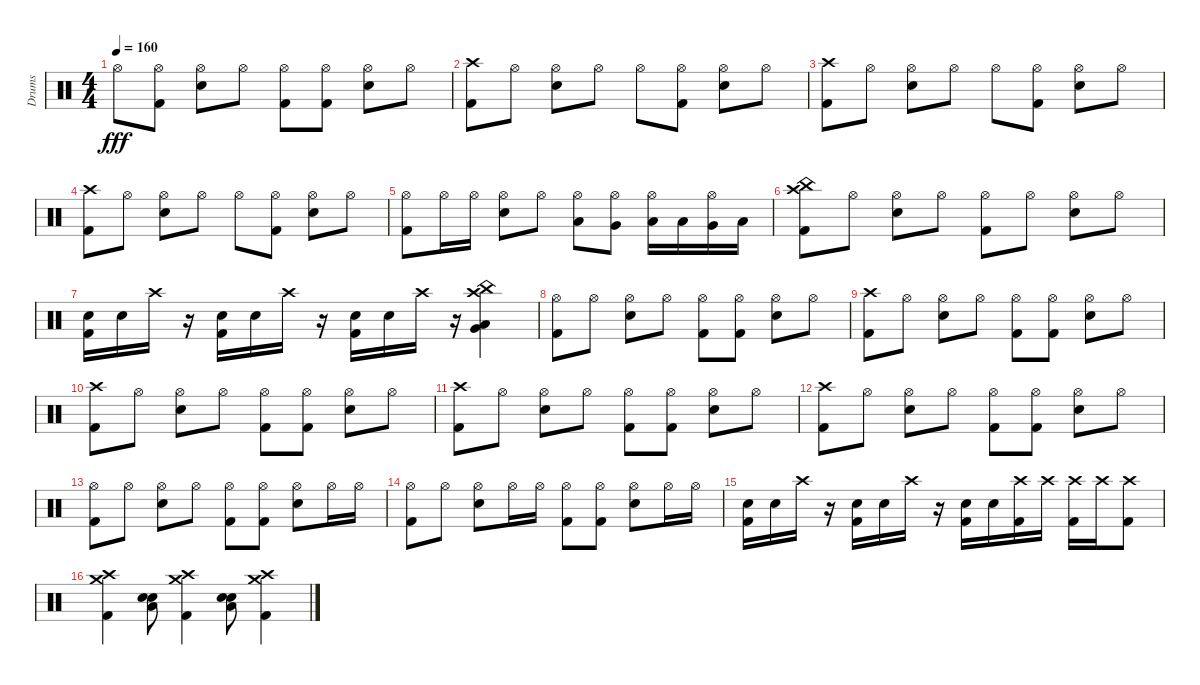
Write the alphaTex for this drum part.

\track ("Drums" "Drums") {instrument percussion}
\staff {score}
\articulation defaults
\ts (4 4)
\tempo 160
\clef neutral
\ks c "Hi-Hat (open)".8{dy fff}
("Hi-Hat (open)" "Kick (hit) 2").8 ("Hi-Hat (open)" "Electric Snare (hit)").8 "Hi-Hat (open)".8 ("Hi-Hat (open)" "Kick (hit) 2").8 ("Hi-Hat (open)" "Kick (hit) 2").8 ("Hi-Hat (open)" "Electric Snare (hit)").8 "Hi-Hat (open)".8 |
("Crash high (hit)" "Kick (hit) 2").8 "Hi-Hat (open)".8 ("Hi-Hat (open)" "Electric Snare (hit)").8 "Hi-Hat (open)".8 "Hi-Hat (open)".8 ("Hi-Hat (open)" "Kick (hit) 2").8 ("Hi-Hat (open)" "Electric Snare (hit)").8 "Hi-Hat (open)".8 |
("Crash high (hit)" "Kick (hit) 2").8 "Hi-Hat (open)".8 ("Hi-Hat (open)" "Electric Snare (hit)").8 "Hi-Hat (open)".8 "Hi-Hat (open)".8 ("Hi-Hat (open)" "Kick (hit) 2").8 ("Hi-Hat (open)" "Electric Snare (hit)").8 "Hi-Hat (open)".8 |
("Crash high (hit)" "Kick (hit) 2").8 "Hi-Hat (open)".8 ("Hi-Hat (open)" "Electric Snare (hit)").8 "Hi-Hat (open)".8 "Hi-Hat (open)".8 ("Hi-Hat (open)" "Kick (hit) 2").8 ("Hi-Hat (open)" "Electric Snare (hit)").8 "Hi-Hat (open)".8 |
("Hi-Hat (open)" "Kick (hit) 2").8 "Hi-Hat (open)".16 "Hi-Hat (open)".16 ("Hi-Hat (open)" "Snare (hit) 2").8 "Hi-Hat (open)".8 ("Hi-Hat (open)" "Low Floor Tom (hit)").8 ("Hi-Hat (open)" "Very Low Tom (hit)").8 ("Hi-Hat (open)" "Low Tom (hit)").16 "Low Tom (hit)".16 ("Hi-Hat (open)" "Very Low Tom (hit)").16 "Low Floor Tom (hit)".16 |
("China (hit)" "Crash high (hit)" "Kick (hit) 2").8 "Hi-Hat (open)".8 ("Hi-Hat (open)" "Snare (hit) 2").8 "Hi-Hat (open)".8 ("Hi-Hat (open)" "Kick (hit) 2").8 "Hi-Hat (open)".8 ("Hi-Hat (open)" "Snare (hit) 2").8 "Hi-Hat (open)".8 |
("Snare (hit) 2" "Kick (hit) 2").16 "Snare (hit) 2".16 "Crash high (hit)".16 r.16 ("Snare (hit) 2" "Kick (hit) 2").16 "Snare (hit) 2".16 "Crash high (hit)".16 r.16 ("Snare (hit) 2" "Kick (hit) 2").16 "Snare (hit) 2".16 "Crash high (hit)".16 r.16 ("Crash high (hit)" "China (hit)" "Very Low Tom (hit)" "Low Floor Tom (hit)").4 |
("Hi-Hat (open)" "Kick (hit) 2").8 "Hi-Hat (open)".8 ("Hi-Hat (open)" "Electric Snare (hit)").8 "Hi-Hat (open)".8 ("Hi-Hat (open)" "Kick (hit) 2").8 ("Hi-Hat (open)" "Kick (hit) 2").8 ("Hi-Hat (open)" "Electric Snare (hit)").8 "Hi-Hat (open)".8 |
("Crash high (hit)" "Kick (hit) 2").8 "Hi-Hat (open)".8 ("Hi-Hat (open)" "Electric Snare (hit)").8 "Hi-Hat (open)".8 ("Hi-Hat (open)" "Kick (hit) 2").8 ("Hi-Hat (open)" "Kick (hit) 2").8 ("Hi-Hat (open)" "Electric Snare (hit)").8 "Hi-Hat (open)".8 |
("Crash high (hit)" "Kick (hit) 2").8 "Hi-Hat (open)".8 ("Hi-Hat (open)" "Electric Snare (hit)").8 "Hi-Hat (open)".8 ("Hi-Hat (open)" "Kick (hit) 2").8 ("Hi-Hat (open)" "Kick (hit) 2").8 ("Hi-Hat (open)" "Electric Snare (hit)").8 "Hi-Hat (open)".8 |
("Crash high (hit)" "Kick (hit) 2").8 "Hi-Hat (open)".8 ("Hi-Hat (open)" "Electric Snare (hit)").8 "Hi-Hat (open)".8 ("Hi-Hat (open)" "Kick (hit) 2").8 ("Hi-Hat (open)" "Kick (hit) 2").8 ("Hi-Hat (open)" "Electric Snare (hit)").8 "Hi-Hat (open)".8 |
("Crash high (hit)" "Kick (hit) 2").8 "Hi-Hat (open)".8 ("Hi-Hat (open)" "Electric Snare (hit)").8 "Hi-Hat (open)".8 ("Hi-Hat (open)" "Kick (hit) 2").8 ("Hi-Hat (open)" "Kick (hit) 2").8 ("Hi-Hat (open)" "Electric Snare (hit)").8 "Hi-Hat (open)".8 |
("Hi-Hat (open)" "Kick (hit) 2").8 "Hi-Hat (open)".8 ("Hi-Hat (open)" "Electric Snare (hit)").8 "Hi-Hat (open)".8 ("Hi-Hat (open)" "Kick (hit) 2").8 ("Hi-Hat (open)" "Kick (hit) 2").8 ("Hi-Hat (open)" "Electric Snare (hit)").8 "Hi-Hat (open)".16 "Hi-Hat (open)".16 |
("Hi-Hat (open)" "Kick (hit) 2").8 "Hi-Hat (open)".8 ("Hi-Hat (open)" "Electric Snare (hit)").8 "Hi-Hat (open)".16 "Hi-Hat (open)".16 ("Hi-Hat (open)" "Kick (hit) 2").8 ("Hi-Hat (open)" "Kick (hit) 2").8 ("Hi-Hat (open)" "Electric Snare (hit)").8 "Hi-Hat (open)".16 "Hi-Hat (open)".16 |
("Snare (hit) 2" "Kick (hit) 2").16 "Snare (hit) 2".16 "Crash high (hit)".16 r.16 ("Snare (hit) 2" "Kick (hit) 2").16 "Snare (hit) 2".16 "Crash high (hit)".16 r.16 ("Snare (hit) 2" "Kick (hit) 2").16 "Snare (hit) 2".16 ("Crash high (hit)" "Kick (hit) 2").16 "Crash high (hit)".16 ("Crash high (hit)" "Kick (hit) 2").16 "Crash high (hit)".16 ("Crash high (hit)" "Kick (hit) 2").8 |
("Crash medium (hit)" "Crash high (hit)" "Kick (hit) 2").4 ("Snare (hit) 2" "Electric Snare (hit)" "Low Floor Tom (hit)").8 ("Crash medium (hit)" "Crash high (hit)" "Kick (hit) 2").4 ("Snare (hit) 2" "Electric Snare (hit)" "Low Floor Tom (hit)").8 ("Crash medium (hit)" "Crash high (hit)" "Kick (hit) 2").4
